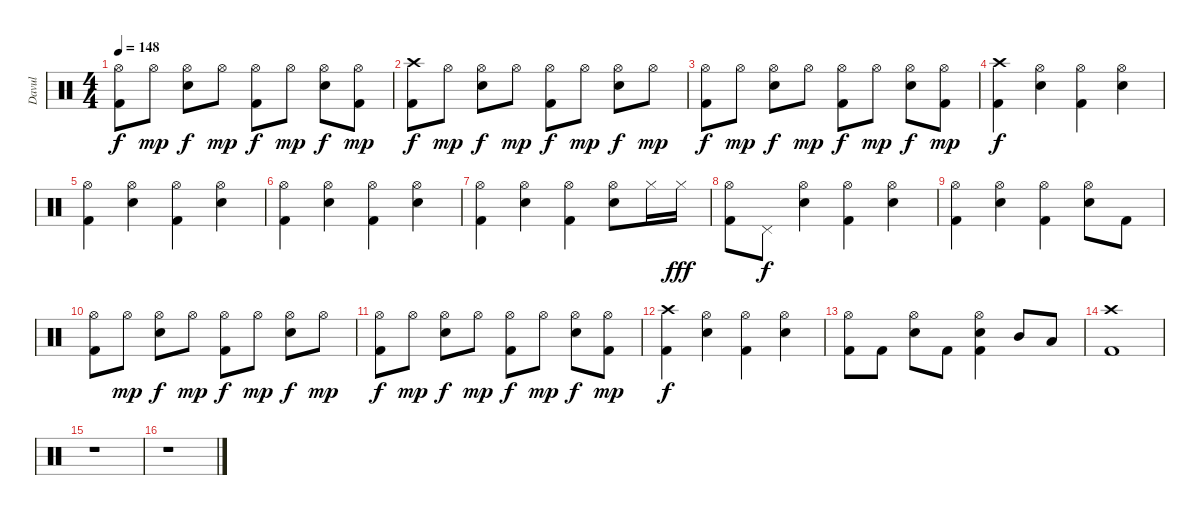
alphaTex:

\track ("Davul" "Davul") {instrument percussion}
\staff {score}
\articulation defaults
\ts (4 4)
\tempo 148
\clef neutral
\ks c
("Hi-Hat (open)" "Kick (hit) 2").8{dy f} "Hi-Hat (open)".8{dy mp} ("Hi-Hat (open)" "Electric Snare (hit)").8{dy f} "Hi-Hat (open)".8{dy mp} ("Hi-Hat (open)" "Kick (hit) 2").8{dy f} "Hi-Hat (open)".8{dy mp} ("Hi-Hat (open)" "Electric Snare (hit)").8{dy f} ("Hi-Hat (open)" "Kick (hit) 2").8{dy mp} |
("Crash high (hit)" "Kick (hit) 2").8{dy f} "Hi-Hat (open)".8{dy mp} ("Hi-Hat (open)" "Electric Snare (hit)").8{dy f} "Hi-Hat (open)".8{dy mp} ("Hi-Hat (open)" "Kick (hit) 2").8{dy f} "Hi-Hat (open)".8{dy mp} ("Hi-Hat (open)" "Electric Snare (hit)").8{dy f} "Hi-Hat (open)".8{dy mp} |
("Hi-Hat (open)" "Kick (hit) 2").8{dy f} "Hi-Hat (open)".8{dy mp} ("Hi-Hat (open)" "Electric Snare (hit)").8{dy f} "Hi-Hat (open)".8{dy mp} ("Hi-Hat (open)" "Kick (hit) 2").8{dy f} "Hi-Hat (open)".8{dy mp} ("Hi-Hat (open)" "Electric Snare (hit)").8{dy f} ("Hi-Hat (open)" "Kick (hit) 2").8{dy mp} |
("Crash high (hit)" "Kick (hit) 2").4{dy f} ("Hi-Hat (open)" "Electric Snare (hit)").4 ("Hi-Hat (open)" "Kick (hit) 2").4 ("Hi-Hat (open)" "Electric Snare (hit)").4 |
("Hi-Hat (open)" "Kick (hit) 2").4 ("Hi-Hat (open)" "Electric Snare (hit)").4 ("Hi-Hat (open)" "Kick (hit) 2").4 ("Hi-Hat (open)" "Electric Snare (hit)").4 |
("Hi-Hat (open)" "Kick (hit) 2").4 ("Hi-Hat (open)" "Electric Snare (hit)").4 ("Hi-Hat (open)" "Kick (hit) 2").4 ("Hi-Hat (open)" "Electric Snare (hit)").4 |
("Hi-Hat (open)" "Kick (hit) 2").4 ("Hi-Hat (open)" "Electric Snare (hit)").4 ("Hi-Hat (open)" "Kick (hit) 2").4 ("Hi-Hat (open)" "Electric Snare (hit)").8 "Hi-Hat (closed)".16 "Hi-Hat (closed)".16{dy fff} |
("Hi-Hat (open)" "Kick (hit) 2").8 "Pedal Hi-Hat (hit)".8{dy f} ("Hi-Hat (open)" "Electric Snare (hit)").4 ("Hi-Hat (open)" "Kick (hit) 2").4 ("Hi-Hat (open)" "Electric Snare (hit)").4 |
("Hi-Hat (open)" "Kick (hit) 2").4 ("Hi-Hat (open)" "Electric Snare (hit)").4 ("Hi-Hat (open)" "Kick (hit) 2").4 ("Hi-Hat (open)" "Electric Snare (hit)").8 "Kick (hit) 2".8 |
("Hi-Hat (open)" "Kick (hit) 2").8 "Hi-Hat (open)".8{dy mp} ("Hi-Hat (open)" "Electric Snare (hit)").8{dy f} "Hi-Hat (open)".8{dy mp} ("Hi-Hat (open)" "Kick (hit) 2").8{dy f} "Hi-Hat (open)".8{dy mp} ("Hi-Hat (open)" "Electric Snare (hit)").8{dy f} "Hi-Hat (open)".8{dy mp} |
("Hi-Hat (open)" "Kick (hit) 2").8{dy f} "Hi-Hat (open)".8{dy mp} ("Hi-Hat (open)" "Electric Snare (hit)").8{dy f} "Hi-Hat (open)".8{dy mp} ("Hi-Hat (open)" "Kick (hit) 2").8{dy f} "Hi-Hat (open)".8{dy mp} ("Hi-Hat (open)" "Electric Snare (hit)").8{dy f} ("Hi-Hat (open)" "Kick (hit) 2").8{dy mp} |
("Crash high (hit)" "Kick (hit) 2").4{dy f} ("Hi-Hat (open)" "Electric Snare (hit)").4 ("Hi-Hat (open)" "Kick (hit) 2").4 ("Hi-Hat (open)" "Electric Snare (hit)").4 |
("Hi-Hat (open)" "Kick (hit) 2").8 "Kick (hit) 2".8 ("Hi-Hat (open)" "Electric Snare (hit)").8 "Kick (hit) 2".8 ("Hi-Hat (open)" "Kick (hit) 2" "Electric Snare (hit)").4 "Mid Tom (hit)".8 "Low Tom (hit)".8 |
("Crash high (hit)" "Kick (hit) 2").1 |
r.1 |
r.1
